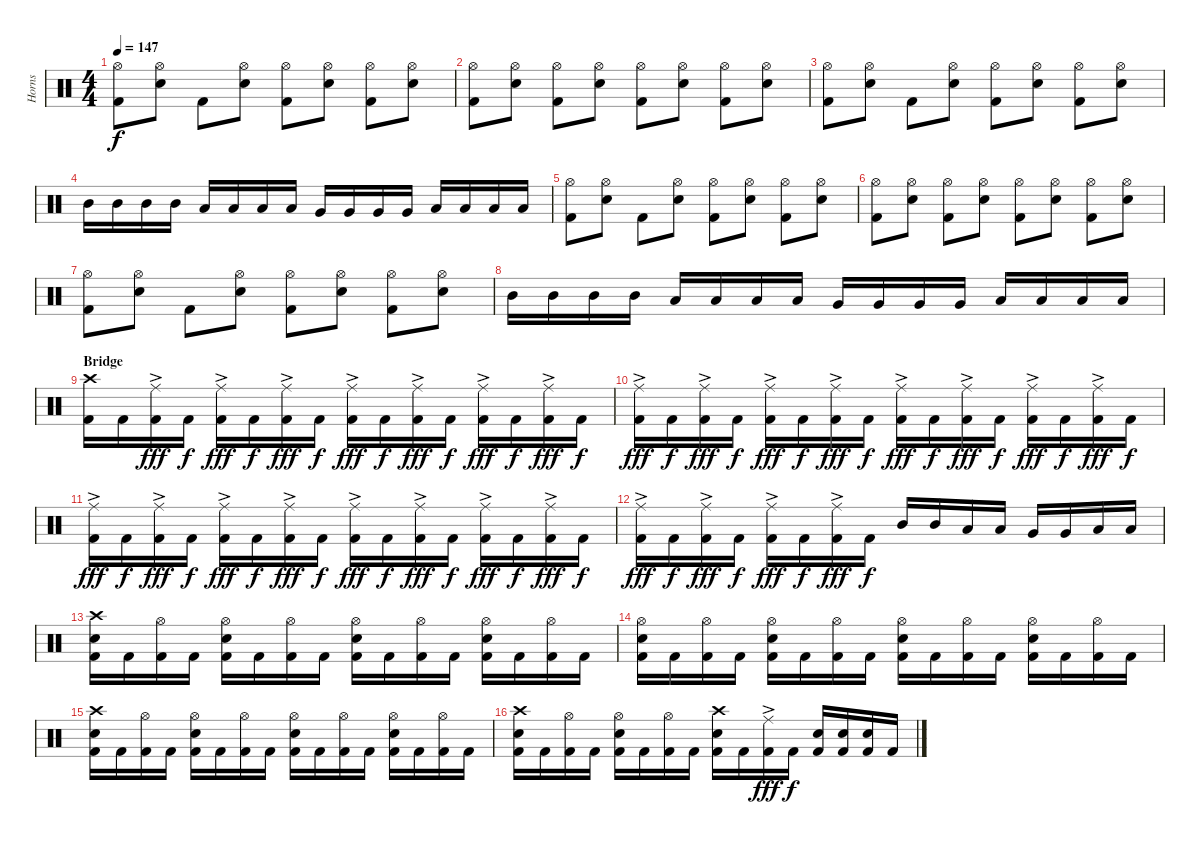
\track ("Horns" "Horns") {instrument percussion}
\staff {score}
\articulation defaults
\ts (4 4)
\tempo 147
\clef neutral
\ks c
("Hi-Hat (open)" "Kick (hit) 2").8{dy f} ("Hi-Hat (open)" "Snare (hit) 2").8 "Kick (hit) 2".8 ("Hi-Hat (open)" "Snare (hit) 2").8 ("Hi-Hat (open)" "Kick (hit) 2").8 ("Hi-Hat (open)" "Snare (hit) 2").8 ("Hi-Hat (open)" "Kick (hit) 2").8 ("Hi-Hat (open)" "Snare (hit) 2").8 |
("Hi-Hat (open)" "Kick (hit) 2").8 ("Hi-Hat (open)" "Snare (hit) 2").8 ("Hi-Hat (open)" "Kick (hit) 2").8 ("Hi-Hat (open)" "Snare (hit) 2").8 ("Hi-Hat (open)" "Kick (hit) 2").8 ("Hi-Hat (open)" "Snare (hit) 2").8 ("Hi-Hat (open)" "Kick (hit) 2").8 ("Hi-Hat (open)" "Snare (hit) 2").8 |
("Hi-Hat (open)" "Kick (hit) 2").8 ("Hi-Hat (open)" "Snare (hit) 2").8 "Kick (hit) 2".8 ("Hi-Hat (open)" "Snare (hit) 2").8 ("Hi-Hat (open)" "Kick (hit) 2").8 ("Hi-Hat (open)" "Snare (hit) 2").8 ("Hi-Hat (open)" "Kick (hit) 2").8 ("Hi-Hat (open)" "Snare (hit) 2").8 |
"Mid Tom (hit)".16 "Mid Tom (hit)".16 "Mid Tom (hit)".16 "Mid Tom (hit)".16 "Low Tom (hit)".16 "Low Tom (hit)".16 "Low Tom (hit)".16 "Low Tom (hit)".16 "Very Low Tom (hit)".16 "Very Low Tom (hit)".16 "Very Low Tom (hit)".16 "Very Low Tom (hit)".16 "Low Floor Tom (hit)".16 "Low Floor Tom (hit)".16 "Low Floor Tom (hit)".16 "Low Floor Tom (hit)".16 |
("Hi-Hat (open)" "Kick (hit) 2").8 ("Hi-Hat (open)" "Snare (hit) 2").8 "Kick (hit) 2".8 ("Hi-Hat (open)" "Snare (hit) 2").8 ("Hi-Hat (open)" "Kick (hit) 2").8 ("Hi-Hat (open)" "Snare (hit) 2").8 ("Hi-Hat (open)" "Kick (hit) 2").8 ("Hi-Hat (open)" "Snare (hit) 2").8 |
("Hi-Hat (open)" "Kick (hit) 2").8 ("Hi-Hat (open)" "Snare (hit) 2").8 ("Hi-Hat (open)" "Kick (hit) 2").8 ("Hi-Hat (open)" "Snare (hit) 2").8 ("Hi-Hat (open)" "Kick (hit) 2").8 ("Hi-Hat (open)" "Snare (hit) 2").8 ("Hi-Hat (open)" "Kick (hit) 2").8 ("Hi-Hat (open)" "Snare (hit) 2").8 |
("Hi-Hat (open)" "Kick (hit) 2").8 ("Hi-Hat (open)" "Snare (hit) 2").8 "Kick (hit) 2".8 ("Hi-Hat (open)" "Snare (hit) 2").8 ("Hi-Hat (open)" "Kick (hit) 2").8 ("Hi-Hat (open)" "Snare (hit) 2").8 ("Hi-Hat (open)" "Kick (hit) 2").8 ("Hi-Hat (open)" "Snare (hit) 2").8 |
"Mid Tom (hit)".16 "Mid Tom (hit)".16 "Mid Tom (hit)".16 "Mid Tom (hit)".16 "Low Tom (hit)".16 "Low Tom (hit)".16 "Low Tom (hit)".16 "Low Tom (hit)".16 "Very Low Tom (hit)".16 "Very Low Tom (hit)".16 "Very Low Tom (hit)".16 "Very Low Tom (hit)".16 "Low Floor Tom (hit)".16 "Low Floor Tom (hit)".16 "Low Floor Tom (hit)".16 "Low Floor Tom (hit)".16 |
\section ("" "Bridge")
("Crash high (hit)" "Kick (hit) 2").16 "Kick (hit) 2".16 ("Ride (middle)"{ac} "Kick (hit) 2").16{dy fff} "Kick (hit) 2".16{dy f} ("Ride (middle)"{ac} "Kick (hit) 2").16{dy fff} "Kick (hit) 2".16{dy f} ("Ride (middle)"{ac} "Kick (hit) 2").16{dy fff} "Kick (hit) 2".16{dy f} ("Ride (middle)"{ac} "Kick (hit) 2").16{dy fff} "Kick (hit) 2".16{dy f} ("Ride (middle)"{ac} "Kick (hit) 2").16{dy fff} "Kick (hit) 2".16{dy f} ("Ride (middle)"{ac} "Kick (hit) 2").16{dy fff} "Kick (hit) 2".16{dy f} ("Ride (middle)"{ac} "Kick (hit) 2").16{dy fff} "Kick (hit) 2".16{dy f} |
("Ride (middle)"{ac} "Kick (hit) 2").16{dy fff} "Kick (hit) 2".16{dy f} ("Ride (middle)"{ac} "Kick (hit) 2").16{dy fff} "Kick (hit) 2".16{dy f} ("Ride (middle)"{ac} "Kick (hit) 2").16{dy fff} "Kick (hit) 2".16{dy f} ("Ride (middle)"{ac} "Kick (hit) 2").16{dy fff} "Kick (hit) 2".16{dy f} ("Ride (middle)"{ac} "Kick (hit) 2").16{dy fff} "Kick (hit) 2".16{dy f} ("Ride (middle)"{ac} "Kick (hit) 2").16{dy fff} "Kick (hit) 2".16{dy f} ("Ride (middle)"{ac} "Kick (hit) 2").16{dy fff} "Kick (hit) 2".16{dy f} ("Ride (middle)"{ac} "Kick (hit) 2").16{dy fff} "Kick (hit) 2".16{dy f} |
("Ride (middle)"{ac} "Kick (hit) 2").16{dy fff} "Kick (hit) 2".16{dy f} ("Ride (middle)"{ac} "Kick (hit) 2").16{dy fff} "Kick (hit) 2".16{dy f} ("Ride (middle)"{ac} "Kick (hit) 2").16{dy fff} "Kick (hit) 2".16{dy f} ("Ride (middle)"{ac} "Kick (hit) 2").16{dy fff} "Kick (hit) 2".16{dy f} ("Ride (middle)"{ac} "Kick (hit) 2").16{dy fff} "Kick (hit) 2".16{dy f} ("Ride (middle)"{ac} "Kick (hit) 2").16{dy fff} "Kick (hit) 2".16{dy f} ("Ride (middle)"{ac} "Kick (hit) 2").16{dy fff} "Kick (hit) 2".16{dy f} ("Ride (middle)"{ac} "Kick (hit) 2").16{dy fff} "Kick (hit) 2".16{dy f} |
("Ride (middle)"{ac} "Kick (hit) 2").16{dy fff} "Kick (hit) 2".16{dy f} ("Ride (middle)"{ac} "Kick (hit) 2").16{dy fff} "Kick (hit) 2".16{dy f} ("Ride (middle)"{ac} "Kick (hit) 2").16{dy fff} "Kick (hit) 2".16{dy f} ("Ride (middle)"{ac} "Kick (hit) 2").16{dy fff} "Kick (hit) 2".16{dy f} "Mid Tom (hit)".16 "Mid Tom (hit)".16 "Low Tom (hit)".16 "Low Tom (hit)".16 "Very Low Tom (hit)".16 "Very Low Tom (hit)".16 "Low Floor Tom (hit)".16 "Low Floor Tom (hit)".16 |
("Crash high (hit)" "Snare (hit) 2" "Kick (hit) 2").16 "Kick (hit) 2".16 ("Hi-Hat (open)" "Kick (hit) 2").16 "Kick (hit) 2".16 ("Hi-Hat (open)" "Snare (hit) 2" "Kick (hit) 2").16 "Kick (hit) 2".16 ("Hi-Hat (open)" "Kick (hit) 2").16 "Kick (hit) 2".16 ("Hi-Hat (open)" "Snare (hit) 2" "Kick (hit) 2").16 "Kick (hit) 2".16 ("Hi-Hat (open)" "Kick (hit) 2").16 "Kick (hit) 2".16 ("Hi-Hat (open)" "Snare (hit) 2" "Kick (hit) 2").16 "Kick (hit) 2".16 ("Hi-Hat (open)" "Kick (hit) 2").16 "Kick (hit) 2".16 |
("Hi-Hat (open)" "Snare (hit) 2" "Kick (hit) 2").16 "Kick (hit) 2".16 ("Hi-Hat (open)" "Kick (hit) 2").16 "Kick (hit) 2".16 ("Hi-Hat (open)" "Snare (hit) 2" "Kick (hit) 2").16 "Kick (hit) 2".16 ("Hi-Hat (open)" "Kick (hit) 2").16 "Kick (hit) 2".16 ("Hi-Hat (open)" "Snare (hit) 2" "Kick (hit) 2").16 "Kick (hit) 2".16 ("Hi-Hat (open)" "Kick (hit) 2").16 "Kick (hit) 2".16 ("Hi-Hat (open)" "Snare (hit) 2" "Kick (hit) 2").16 "Kick (hit) 2".16 ("Hi-Hat (open)" "Kick (hit) 2").16 "Kick (hit) 2".16 |
("Crash high (hit)" "Snare (hit) 2" "Kick (hit) 2").16 "Kick (hit) 2".16 ("Hi-Hat (open)" "Kick (hit) 2").16 "Kick (hit) 2".16 ("Hi-Hat (open)" "Snare (hit) 2" "Kick (hit) 2").16 "Kick (hit) 2".16 ("Hi-Hat (open)" "Kick (hit) 2").16 "Kick (hit) 2".16 ("Hi-Hat (open)" "Snare (hit) 2" "Kick (hit) 2").16 "Kick (hit) 2".16 ("Hi-Hat (open)" "Kick (hit) 2").16 "Kick (hit) 2".16 ("Hi-Hat (open)" "Snare (hit) 2" "Kick (hit) 2").16 "Kick (hit) 2".16 ("Hi-Hat (open)" "Kick (hit) 2").16 "Kick (hit) 2".16 |
("Crash high (hit)" "Snare (hit) 2" "Kick (hit) 2").16 "Kick (hit) 2".16 ("Hi-Hat (open)" "Kick (hit) 2").16 "Kick (hit) 2".16 ("Hi-Hat (open)" "Snare (hit) 2" "Kick (hit) 2").16 "Kick (hit) 2".16 ("Hi-Hat (open)" "Kick (hit) 2").16 "Kick (hit) 2".16 ("Crash high (hit)" "Snare (hit) 2" "Kick (hit) 2").16 "Kick (hit) 2".16 ("Ride (middle)"{ac} "Kick (hit) 2").16{dy fff} "Kick (hit) 2".16{dy f} ("Snare (hit) 2" "Kick (hit) 2").16 ("Snare (hit) 2" "Kick (hit) 2").16 ("Snare (hit) 2" "Kick (hit) 2").16 "Kick (hit) 2".16
